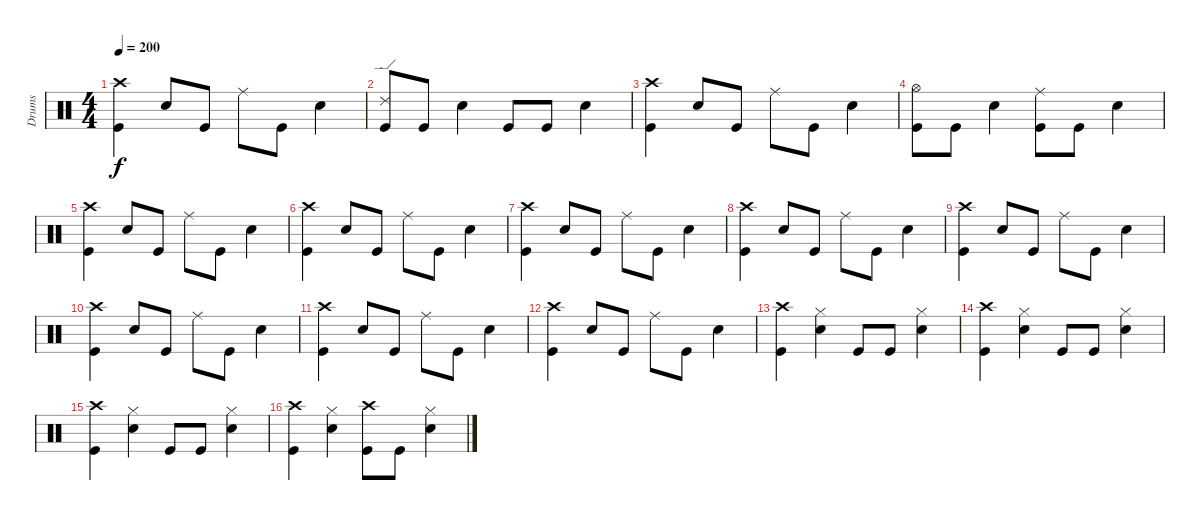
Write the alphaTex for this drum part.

\track ("Drums" "Drums") {instrument percussion}
\staff {score}
\articulation defaults
\ts (4 4)
\tempo 200
\clef neutral
\ks c
("Crash high (hit)" "Kick (hit)").4{dy f} "Snare (hit) 2".8 "Kick (hit)".8 "Ride (middle)".8 "Kick (hit)".8 "Snare (hit) 2".4 |
("Ride (edge) 2" "Kick (hit)").8 "Kick (hit)".8 "Snare (hit) 2".4 "Kick (hit)".8 "Kick (hit)".8 "Snare (hit) 2".4 |
("Crash high (hit)" "Kick (hit)").4 "Snare (hit) 2".8 "Kick (hit)".8 "Ride (middle)".8 "Kick (hit)".8 "Snare (hit) 2".4 |
("Hi-Hat (open)" "Kick (hit)").8 "Kick (hit)".8 "Snare (hit) 2".4 ("Ride (middle)" "Kick (hit)").8 "Kick (hit)".8 "Snare (hit) 2".4 |
("Crash high (hit)" "Kick (hit)").4 "Snare (hit) 2".8 "Kick (hit)".8 "Ride (middle)".8 "Kick (hit)".8 "Snare (hit) 2".4 |
("Crash high (hit)" "Kick (hit)").4 "Snare (hit) 2".8 "Kick (hit)".8 "Ride (middle)".8 "Kick (hit)".8 "Snare (hit) 2".4 |
("Crash high (hit)" "Kick (hit)").4 "Snare (hit) 2".8 "Kick (hit)".8 "Ride (middle)".8 "Kick (hit)".8 "Snare (hit) 2".4 |
("Crash high (hit)" "Kick (hit)").4 "Snare (hit) 2".8 "Kick (hit)".8 "Ride (middle)".8 "Kick (hit)".8 "Snare (hit) 2".4 |
("Crash high (hit)" "Kick (hit)").4 "Snare (hit) 2".8 "Kick (hit)".8 "Ride (middle)".8 "Kick (hit)".8 "Snare (hit) 2".4 |
("Crash high (hit)" "Kick (hit)").4 "Snare (hit) 2".8 "Kick (hit)".8 "Ride (middle)".8 "Kick (hit)".8 "Snare (hit) 2".4 |
("Crash high (hit)" "Kick (hit)").4 "Snare (hit) 2".8 "Kick (hit)".8 "Ride (middle)".8 "Kick (hit)".8 "Snare (hit) 2".4 |
("Crash high (hit)" "Kick (hit)").4 "Snare (hit) 2".8 "Kick (hit)".8 "Ride (middle)".8 "Kick (hit)".8 "Snare (hit) 2".4 |
("Crash high (hit)" "Kick (hit)").4 ("Hi-Hat (closed)" "Snare (hit) 2").4 "Kick (hit)".8 "Kick (hit)".8 ("Hi-Hat (closed)" "Snare (hit) 2").4 |
("Crash high (hit)" "Kick (hit)").4 ("Hi-Hat (closed)" "Snare (hit) 2").4 "Kick (hit)".8 "Kick (hit)".8 ("Hi-Hat (closed)" "Snare (hit) 2").4 |
("Crash high (hit)" "Kick (hit)").4 ("Hi-Hat (closed)" "Snare (hit) 2").4 "Kick (hit)".8 "Kick (hit)".8 ("Hi-Hat (closed)" "Snare (hit) 2").4 |
("Crash high (hit)" "Kick (hit)").4 ("Hi-Hat (closed)" "Snare (hit) 2").4 ("Crash high (hit)" "Kick (hit)").8 "Kick (hit)".8 ("Hi-Hat (closed)" "Snare (hit) 2").4
